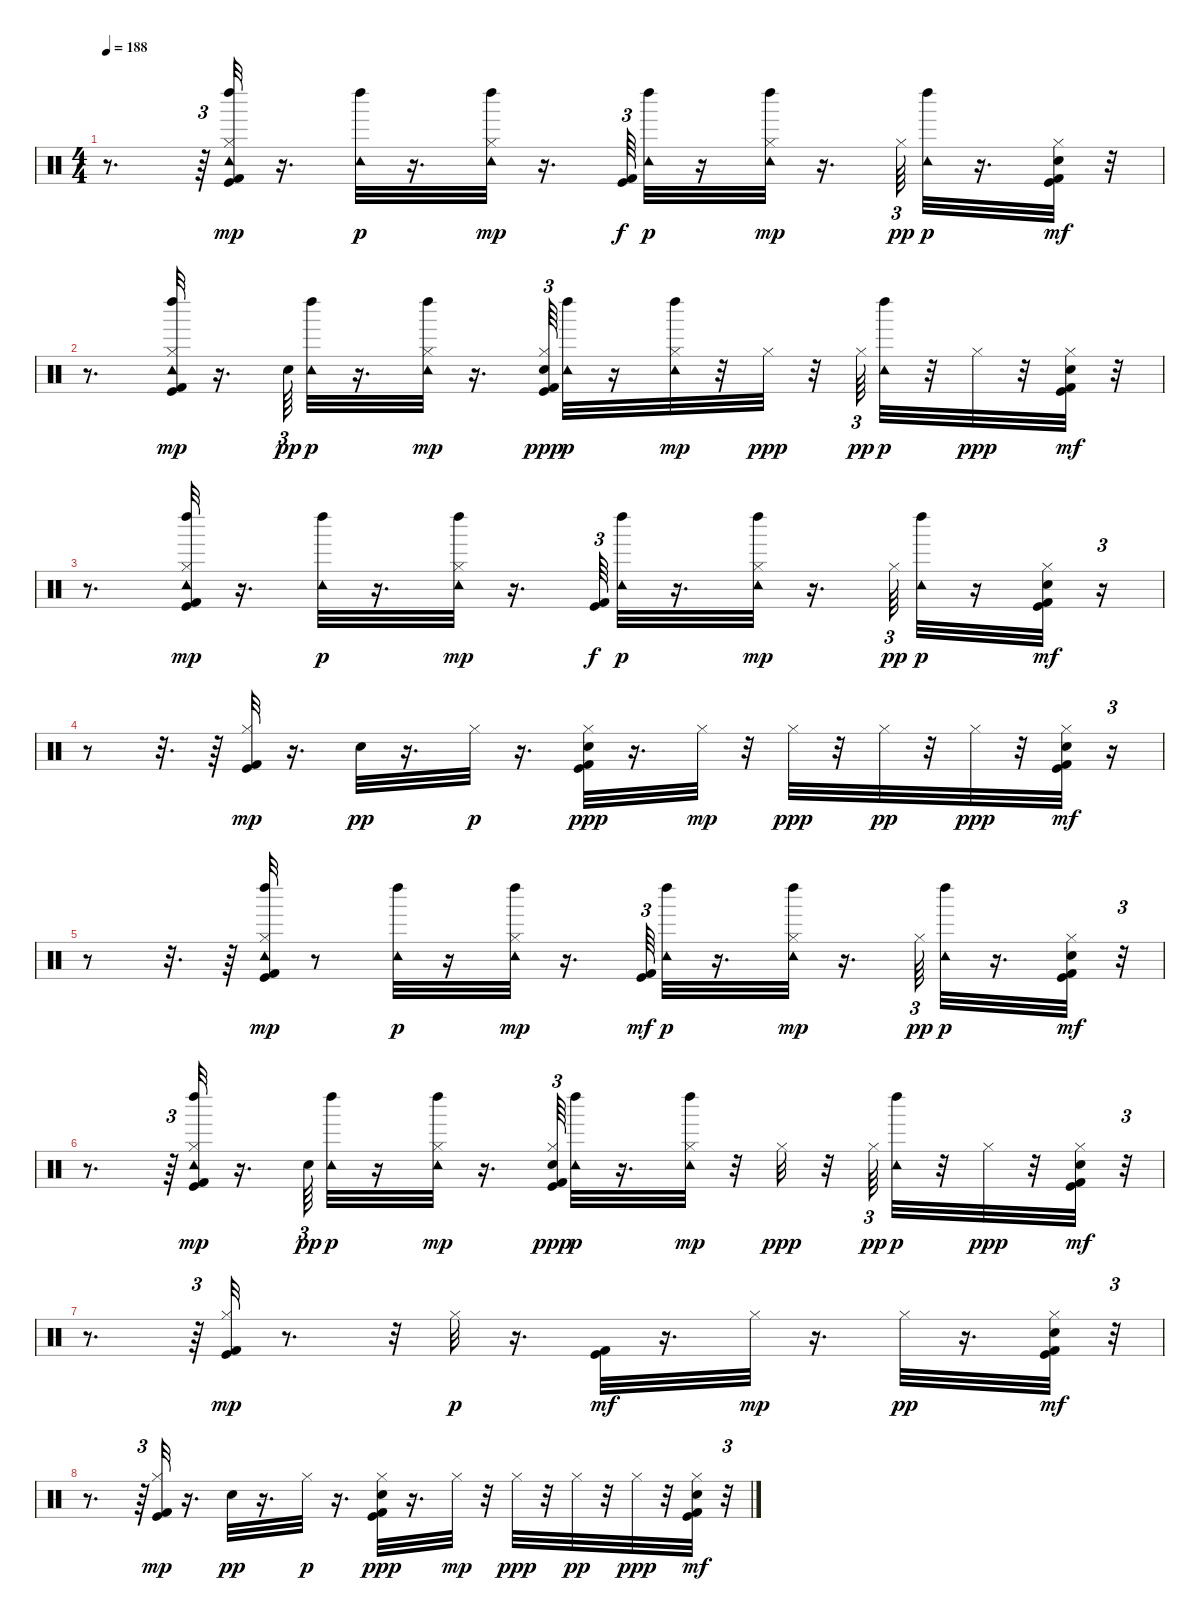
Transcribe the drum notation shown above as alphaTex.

\track "" {instrument percussion}
\staff {score}
\articulation defaults
\ts (4 4)
\tempo 188
\clef neutral
\ks c
r.8{d dy mf} r.64{tu (3 2)} ("Kick (hit) 2" "Hi-Hat (closed)" "Tambourine (hit)" "Left Maraca (hit)" "Kick (hit)").32{dy mp} r.16{d} ("Tambourine (hit)" "Left Maraca (hit)").32{dy p} r.16{d} ("Hi-Hat (closed)" "Tambourine (hit)" "Left Maraca (hit)").32{dy mp} r.16{d} ("Kick (hit) 2" "Kick (hit)").64{tu (3 2) dy f} ("Tambourine (hit)" "Left Maraca (hit)").32{dy p} r.16 ("Hi-Hat (closed)" "Tambourine (hit)" "Left Maraca (hit)").32{dy mp} r.16{d} "Hi-Hat (closed)".64{tu (3 2) dy pp} ("Tambourine (hit)" "Left Maraca (hit)").32{dy p} r.16{d} ("Kick (hit) 2" "Hi-Hat (closed)" "Electric Snare (hit)" "Kick (hit)").32{dy mf} r.32 |
r.8{d} ("Kick (hit) 2" "Hi-Hat (closed)" "Tambourine (hit)" "Left Maraca (hit)" "Kick (hit)").32{dy mp} r.16{d} "Electric Snare (hit)".64{tu (3 2) dy pp} ("Tambourine (hit)" "Left Maraca (hit)").32{dy p} r.16{d} ("Hi-Hat (closed)" "Tambourine (hit)" "Left Maraca (hit)").32{dy mp} r.16{d} ("Kick (hit) 2" "Electric Snare (hit)" "Hi-Hat (closed)" "Kick (hit)").64{tu (3 2) dy ppp} ("Tambourine (hit)" "Left Maraca (hit)").32{dy p} r.16 ("Hi-Hat (closed)" "Tambourine (hit)" "Left Maraca (hit)").32{dy mp} r.32 "Hi-Hat (closed)".32{dy ppp} r.32 "Hi-Hat (closed)".64{tu (3 2) dy pp} ("Tambourine (hit)" "Left Maraca (hit)").32{dy p} r.32 "Hi-Hat (closed)".32{dy ppp} r.32 ("Kick (hit) 2" "Hi-Hat (closed)" "Electric Snare (hit)" "Kick (hit)").32{dy mf} r.32 |
r.8{d} ("Kick (hit) 2" "Hi-Hat (closed)" "Tambourine (hit)" "Left Maraca (hit)" "Kick (hit)").32{dy mp} r.16{d} ("Tambourine (hit)" "Left Maraca (hit)").32{dy p} r.16{d} ("Hi-Hat (closed)" "Tambourine (hit)" "Left Maraca (hit)").32{dy mp} r.16{d} ("Kick (hit) 2" "Kick (hit)").64{tu (3 2) dy f} ("Tambourine (hit)" "Left Maraca (hit)").32{dy p} r.16{d} ("Hi-Hat (closed)" "Tambourine (hit)" "Left Maraca (hit)").32{dy mp} r.16{d} "Hi-Hat (closed)".64{tu (3 2) dy pp} ("Tambourine (hit)" "Left Maraca (hit)").32{dy p} r.16 ("Kick (hit) 2" "Hi-Hat (closed)" "Electric Snare (hit)" "Kick (hit)").32{dy mf} r.16{tu (3 2)} |
r.8 r.32{d} r.64 ("Kick (hit) 2" "Hi-Hat (closed)" "Kick (hit)").32{dy mp} r.16{d} "Electric Snare (hit)".32{dy pp} r.16{d} "Hi-Hat (closed)".32{dy p} r.16{d} ("Kick (hit) 2" "Electric Snare (hit)" "Hi-Hat (closed)" "Kick (hit)").32{dy ppp} r.16{d} "Hi-Hat (closed)".32{dy mp} r.32 "Hi-Hat (closed)".32{dy ppp} r.32 "Hi-Hat (closed)".32{dy pp} r.32 "Hi-Hat (closed)".32{dy ppp} r.32 ("Kick (hit) 2" "Hi-Hat (closed)" "Electric Snare (hit)" "Kick (hit)").32{dy mf} r.16{tu (3 2)} |
r.8 r.32{d} r.64 ("Kick (hit) 2" "Hi-Hat (closed)" "Tambourine (hit)" "Left Maraca (hit)" "Kick (hit)").32{dy mp} r.8 ("Tambourine (hit)" "Left Maraca (hit)").32{dy p} r.16 ("Hi-Hat (closed)" "Tambourine (hit)" "Left Maraca (hit)").32{dy mp} r.16{d} ("Kick (hit) 2" "Kick (hit)").64{tu (3 2) dy mf} ("Tambourine (hit)" "Left Maraca (hit)").32{dy p} r.16{d} ("Hi-Hat (closed)" "Tambourine (hit)" "Left Maraca (hit)").32{dy mp} r.16{d} "Hi-Hat (closed)".64{tu (3 2) dy pp} ("Tambourine (hit)" "Left Maraca (hit)").32{dy p} r.16{d} ("Kick (hit) 2" "Hi-Hat (closed)" "Electric Snare (hit)" "Kick (hit)").32{dy mf} r.32{tu (3 2)} |
r.8{d} r.64{tu (3 2)} ("Kick (hit) 2" "Hi-Hat (closed)" "Tambourine (hit)" "Left Maraca (hit)" "Kick (hit)").32{dy mp} r.16{d} "Electric Snare (hit)".64{tu (3 2) dy pp} ("Tambourine (hit)" "Left Maraca (hit)").32{dy p} r.16 ("Hi-Hat (closed)" "Tambourine (hit)" "Left Maraca (hit)").32{dy mp} r.16{d} ("Kick (hit) 2" "Electric Snare (hit)" "Hi-Hat (closed)" "Kick (hit)").64{tu (3 2) dy ppp} ("Tambourine (hit)" "Left Maraca (hit)").32{dy p} r.16{d} ("Hi-Hat (closed)" "Tambourine (hit)" "Left Maraca (hit)").32{dy mp} r.32 "Hi-Hat (closed)".32{dy ppp} r.32 "Hi-Hat (closed)".64{tu (3 2) dy pp} ("Tambourine (hit)" "Left Maraca (hit)").32{dy p} r.32 "Hi-Hat (closed)".32{dy ppp} r.32 ("Kick (hit) 2" "Hi-Hat (closed)" "Electric Snare (hit)" "Kick (hit)").32{dy mf} r.32{tu (3 2)} |
r.8{d} r.64{tu (3 2)} ("Kick (hit) 2" "Hi-Hat (closed)" "Kick (hit)").32{dy mp} r.8{d} r.32 "Hi-Hat (closed)".32{dy p} r.16{d} ("Kick (hit) 2" "Kick (hit)").32{dy mf} r.16{d} "Hi-Hat (closed)".32{dy mp} r.16{d} "Hi-Hat (closed)".32{dy pp} r.16{d} ("Kick (hit) 2" "Hi-Hat (closed)" "Electric Snare (hit)" "Kick (hit)").32{dy mf} r.32{tu (3 2)} |
r.8{d} r.64{tu (3 2)} ("Kick (hit) 2" "Hi-Hat (closed)" "Kick (hit)").32{dy mp} r.16{d} "Electric Snare (hit)".32{dy pp} r.16{d} "Hi-Hat (closed)".32{dy p} r.16{d} ("Kick (hit) 2" "Electric Snare (hit)" "Hi-Hat (closed)" "Kick (hit)").32{dy ppp} r.16{d} "Hi-Hat (closed)".32{dy mp} r.32 "Hi-Hat (closed)".32{dy ppp} r.32 "Hi-Hat (closed)".32{dy pp} r.32 "Hi-Hat (closed)".32{dy ppp} r.32 ("Kick (hit) 2" "Hi-Hat (closed)" "Electric Snare (hit)" "Kick (hit)").32{dy mf} r.32{tu (3 2)}
